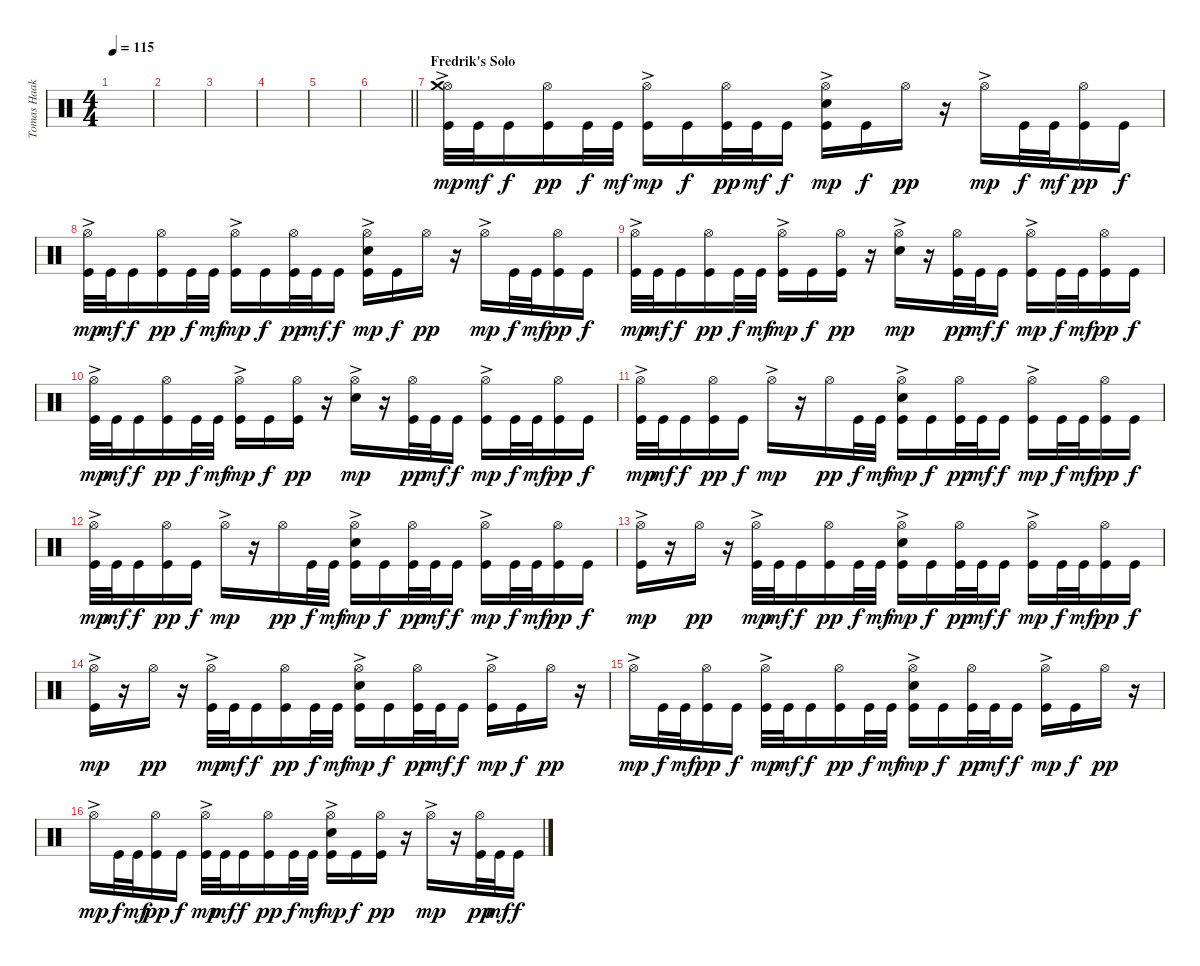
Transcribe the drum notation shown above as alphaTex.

\track ("Tomas Haake (Drums)" "Tomas Haak") {instrument percussion}
\staff {score}
\articulation defaults
\ts (4 4)
\tempo 115
\clef neutral
\ks c
|
|
|
|
|
\barLineRight lightlight
|
\section ("" "Fredrik's Solo")
("Hi-Hat (open)"{ac} "Crash medium (hit)" "Kick (hit)").32{dy mp} "Kick (hit)".32{dy mf} "Kick (hit)".16{dy f} ("Hi-Hat (open)" "Kick (hit)").16{dy pp} "Kick (hit)".32{dy f} "Kick (hit)".32{dy mf} ("Hi-Hat (open)"{ac} "Kick (hit)").16{dy mp} "Kick (hit)".16{dy f} ("Hi-Hat (open)" "Kick (hit)").32{dy pp} "Kick (hit)".32{dy mf} "Kick (hit)".16{dy f} ("Hi-Hat (open)"{ac} "Electric Snare (hit)" "Kick (hit)").16{dy mp} "Kick (hit)".16{dy f} "Hi-Hat (open)".16{dy pp} r.16 "Hi-Hat (open)"{ac}.16{dy mp} "Kick (hit)".32{dy f} "Kick (hit)".32{dy mf} ("Hi-Hat (open)" "Kick (hit)").16{dy pp} "Kick (hit)".16{dy f} |
("Hi-Hat (open)"{ac} "Kick (hit)").32{dy mp} "Kick (hit)".32{dy mf} "Kick (hit)".16{dy f} ("Hi-Hat (open)" "Kick (hit)").16{dy pp} "Kick (hit)".32{dy f} "Kick (hit)".32{dy mf} ("Hi-Hat (open)"{ac} "Kick (hit)").16{dy mp} "Kick (hit)".16{dy f} ("Hi-Hat (open)" "Kick (hit)").32{dy pp} "Kick (hit)".32{dy mf} "Kick (hit)".16{dy f} ("Hi-Hat (open)"{ac} "Electric Snare (hit)" "Kick (hit)").16{dy mp} "Kick (hit)".16{dy f} "Hi-Hat (open)".16{dy pp} r.16 "Hi-Hat (open)"{ac}.16{dy mp} "Kick (hit)".32{dy f} "Kick (hit)".32{dy mf} ("Hi-Hat (open)" "Kick (hit)").16{dy pp} "Kick (hit)".16{dy f} |
("Hi-Hat (open)"{ac} "Kick (hit)").32{dy mp} "Kick (hit)".32{dy mf} "Kick (hit)".16{dy f} ("Hi-Hat (open)" "Kick (hit)").16{dy pp} "Kick (hit)".32{dy f} "Kick (hit)".32{dy mf} ("Hi-Hat (open)"{ac} "Kick (hit)").16{dy mp} "Kick (hit)".16{dy f} ("Hi-Hat (open)" "Kick (hit)").16{dy pp} r.16 ("Hi-Hat (open)"{ac} "Electric Snare (hit)").16{dy mp} r.16 ("Hi-Hat (open)" "Kick (hit)").32{dy pp} "Kick (hit)".32{dy mf} "Kick (hit)".16{dy f} ("Hi-Hat (open)"{ac} "Kick (hit)").16{dy mp} "Kick (hit)".32{dy f} "Kick (hit)".32{dy mf} ("Hi-Hat (open)" "Kick (hit)").16{dy pp} "Kick (hit)".16{dy f} |
("Hi-Hat (open)"{ac} "Kick (hit)").32{dy mp} "Kick (hit)".32{dy mf} "Kick (hit)".16{dy f} ("Hi-Hat (open)" "Kick (hit)").16{dy pp} "Kick (hit)".32{dy f} "Kick (hit)".32{dy mf} ("Hi-Hat (open)"{ac} "Kick (hit)").16{dy mp} "Kick (hit)".16{dy f} ("Hi-Hat (open)" "Kick (hit)").16{dy pp} r.16 ("Hi-Hat (open)"{ac} "Electric Snare (hit)").16{dy mp} r.16 ("Hi-Hat (open)" "Kick (hit)").32{dy pp} "Kick (hit)".32{dy mf} "Kick (hit)".16{dy f} ("Hi-Hat (open)"{ac} "Kick (hit)").16{dy mp} "Kick (hit)".32{dy f} "Kick (hit)".32{dy mf} ("Hi-Hat (open)" "Kick (hit)").16{dy pp} "Kick (hit)".16{dy f} |
("Hi-Hat (open)"{ac} "Kick (hit)").32{dy mp} "Kick (hit)".32{dy mf} "Kick (hit)".16{dy f} ("Hi-Hat (open)" "Kick (hit)").16{dy pp} "Kick (hit)".16{dy f} "Hi-Hat (open)"{ac}.16{dy mp} r.16 "Hi-Hat (open)".16{dy pp} "Kick (hit)".32{dy f} "Kick (hit)".32{dy mf} ("Hi-Hat (open)"{ac} "Electric Snare (hit)" "Kick (hit)").16{dy mp} "Kick (hit)".16{dy f} ("Hi-Hat (open)" "Kick (hit)").32{dy pp} "Kick (hit)".32{dy mf} "Kick (hit)".16{dy f} ("Hi-Hat (open)"{ac} "Kick (hit)").16{dy mp} "Kick (hit)".32{dy f} "Kick (hit)".32{dy mf} ("Hi-Hat (open)" "Kick (hit)").16{dy pp} "Kick (hit)".16{dy f} |
("Hi-Hat (open)"{ac} "Kick (hit)").32{dy mp} "Kick (hit)".32{dy mf} "Kick (hit)".16{dy f} ("Hi-Hat (open)" "Kick (hit)").16{dy pp} "Kick (hit)".16{dy f} "Hi-Hat (open)"{ac}.16{dy mp} r.16 "Hi-Hat (open)".16{dy pp} "Kick (hit)".32{dy f} "Kick (hit)".32{dy mf} ("Hi-Hat (open)"{ac} "Electric Snare (hit)" "Kick (hit)").16{dy mp} "Kick (hit)".16{dy f} ("Hi-Hat (open)" "Kick (hit)").32{dy pp} "Kick (hit)".32{dy mf} "Kick (hit)".16{dy f} ("Hi-Hat (open)"{ac} "Kick (hit)").16{dy mp} "Kick (hit)".32{dy f} "Kick (hit)".32{dy mf} ("Hi-Hat (open)" "Kick (hit)").16{dy pp} "Kick (hit)".16{dy f} |
("Hi-Hat (open)"{ac} "Kick (hit)").16{dy mp} r.16 "Hi-Hat (open)".16{dy pp} r.16 ("Hi-Hat (open)"{ac} "Kick (hit)").32{dy mp} "Kick (hit)".32{dy mf} "Kick (hit)".16{dy f} ("Hi-Hat (open)" "Kick (hit)").16{dy pp} "Kick (hit)".32{dy f} "Kick (hit)".32{dy mf} ("Hi-Hat (open)"{ac} "Electric Snare (hit)" "Kick (hit)").16{dy mp} "Kick (hit)".16{dy f} ("Hi-Hat (open)" "Kick (hit)").32{dy pp} "Kick (hit)".32{dy mf} "Kick (hit)".16{dy f} ("Hi-Hat (open)"{ac} "Kick (hit)").16{dy mp} "Kick (hit)".32{dy f} "Kick (hit)".32{dy mf} ("Hi-Hat (open)" "Kick (hit)").16{dy pp} "Kick (hit)".16{dy f} |
("Hi-Hat (open)"{ac} "Kick (hit)").16{dy mp} r.16 "Hi-Hat (open)".16{dy pp} r.16 ("Hi-Hat (open)"{ac} "Kick (hit)").32{dy mp} "Kick (hit)".32{dy mf} "Kick (hit)".16{dy f} ("Hi-Hat (open)" "Kick (hit)").16{dy pp} "Kick (hit)".32{dy f} "Kick (hit)".32{dy mf} ("Hi-Hat (open)"{ac} "Electric Snare (hit)" "Kick (hit)").16{dy mp} "Kick (hit)".16{dy f} ("Hi-Hat (open)" "Kick (hit)").32{dy pp} "Kick (hit)".32{dy mf} "Kick (hit)".16{dy f} ("Hi-Hat (open)"{ac} "Kick (hit)").16{dy mp} "Kick (hit)".16{dy f} "Hi-Hat (open)".16{dy pp} r.16 |
"Hi-Hat (open)"{ac}.16{dy mp} "Kick (hit)".32{dy f} "Kick (hit)".32{dy mf} ("Hi-Hat (open)" "Kick (hit)").16{dy pp} "Kick (hit)".16{dy f} ("Hi-Hat (open)"{ac} "Kick (hit)").32{dy mp} "Kick (hit)".32{dy mf} "Kick (hit)".16{dy f} ("Hi-Hat (open)" "Kick (hit)").16{dy pp} "Kick (hit)".32{dy f} "Kick (hit)".32{dy mf} ("Hi-Hat (open)"{ac} "Electric Snare (hit)" "Kick (hit)").16{dy mp} "Kick (hit)".16{dy f} ("Hi-Hat (open)" "Kick (hit)").32{dy pp} "Kick (hit)".32{dy mf} "Kick (hit)".16{dy f} ("Hi-Hat (open)"{ac} "Kick (hit)").16{dy mp} "Kick (hit)".16{dy f} "Hi-Hat (open)".16{dy pp} r.16 |
"Hi-Hat (open)"{ac}.16{dy mp} "Kick (hit)".32{dy f} "Kick (hit)".32{dy mf} ("Hi-Hat (open)" "Kick (hit)").16{dy pp} "Kick (hit)".16{dy f} ("Hi-Hat (open)"{ac} "Kick (hit)").32{dy mp} "Kick (hit)".32{dy mf} "Kick (hit)".16{dy f} ("Hi-Hat (open)" "Kick (hit)").16{dy pp} "Kick (hit)".32{dy f} "Kick (hit)".32{dy mf} ("Hi-Hat (open)"{ac} "Electric Snare (hit)" "Kick (hit)").16{dy mp} "Kick (hit)".16{dy f} ("Hi-Hat (open)" "Kick (hit)").16{dy pp} r.16 "Hi-Hat (open)"{ac}.16{dy mp} r.16 ("Hi-Hat (open)" "Kick (hit)").32{dy pp} "Kick (hit)".32{dy mf} "Kick (hit)".16{dy f}
